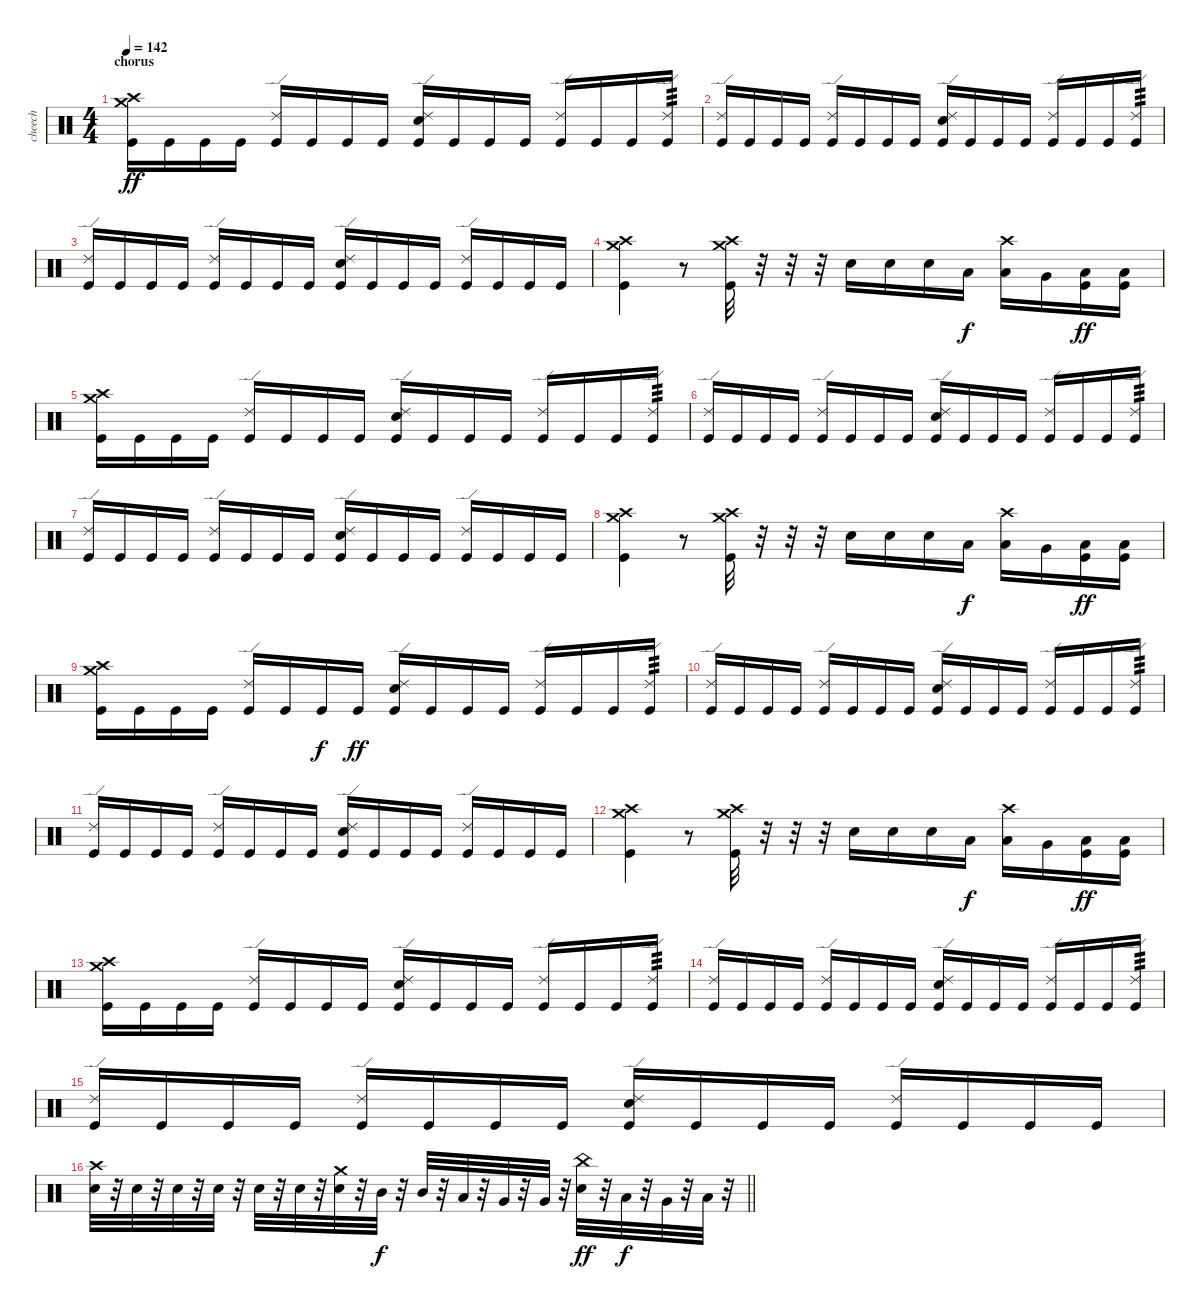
\track ("cheech" "cheech") {instrument percussion}
\staff {score}
\articulation defaults
\ts (4 4)
\section ("" "chorus")
\tempo 142
\clef neutral
\ks c
("Crash high (hit)" "Crash medium (hit)" "Kick (hit)").16{dy ff} "Kick (hit)".16 "Kick (hit)".16 "Kick (hit)".16 ("Ride (edge) 2" "Kick (hit)").16 "Kick (hit)".16 "Kick (hit)".16 "Kick (hit)".16 ("Ride (edge) 2" "Electric Snare (hit)" "Kick (hit)").16 "Kick (hit)".16 "Kick (hit)".16 "Kick (hit)".16 ("Ride (edge) 2" "Kick (hit)").16 "Kick (hit)".16 "Kick (hit)".16 ("Ride (edge) 2" "Kick (hit)").16{tp 3} |
("Ride (edge) 2" "Kick (hit)").16 "Kick (hit)".16 "Kick (hit)".16 "Kick (hit)".16 ("Ride (edge) 2" "Kick (hit)").16 "Kick (hit)".16 "Kick (hit)".16 "Kick (hit)".16 ("Ride (edge) 2" "Electric Snare (hit)" "Kick (hit)").16 "Kick (hit)".16 "Kick (hit)".16 "Kick (hit)".16 ("Ride (edge) 2" "Kick (hit)").16 "Kick (hit)".16 "Kick (hit)".16 ("Ride (edge) 2" "Kick (hit)").16{tp 3} |
("Ride (edge) 2" "Kick (hit)").16 "Kick (hit)".16 "Kick (hit)".16 "Kick (hit)".16 ("Ride (edge) 2" "Kick (hit)").16 "Kick (hit)".16 "Kick (hit)".16 "Kick (hit)".16 ("Ride (edge) 2" "Electric Snare (hit)" "Kick (hit)").16 "Kick (hit)".16 "Kick (hit)".16 "Kick (hit)".16 ("Ride (edge) 2" "Kick (hit)").16 "Kick (hit)".16 "Kick (hit)".16 "Kick (hit)".16 |
("Crash high (hit)" "Crash medium (hit)" "Kick (hit)").4 r.8 ("Crash medium (hit)" "Crash high (hit)" "Kick (hit)").32 r.32 r.32 r.32 "Electric Snare (hit)".16 "Electric Snare (hit)".16 "Electric Snare (hit)".16 "Low Tom (hit)".16{dy f} ("Crash high (hit)" "Low Tom (hit)").16 "Very Low Tom (hit)".16 ("Low Floor Tom (hit)" "Kick (hit)").16{dy ff} ("Low Floor Tom (hit)" "Kick (hit)").16 |
("Crash high (hit)" "Crash medium (hit)" "Kick (hit)").16 "Kick (hit)".16 "Kick (hit)".16 "Kick (hit)".16 ("Ride (edge) 2" "Kick (hit)").16 "Kick (hit)".16 "Kick (hit)".16 "Kick (hit)".16 ("Ride (edge) 2" "Electric Snare (hit)" "Kick (hit)").16 "Kick (hit)".16 "Kick (hit)".16 "Kick (hit)".16 ("Ride (edge) 2" "Kick (hit)").16 "Kick (hit)".16 "Kick (hit)".16 ("Ride (edge) 2" "Kick (hit)").16{tp 3} |
("Ride (edge) 2" "Kick (hit)").16 "Kick (hit)".16 "Kick (hit)".16 "Kick (hit)".16 ("Ride (edge) 2" "Kick (hit)").16 "Kick (hit)".16 "Kick (hit)".16 "Kick (hit)".16 ("Ride (edge) 2" "Electric Snare (hit)" "Kick (hit)").16 "Kick (hit)".16 "Kick (hit)".16 "Kick (hit)".16 ("Ride (edge) 2" "Kick (hit)").16 "Kick (hit)".16 "Kick (hit)".16 ("Ride (edge) 2" "Kick (hit)").16{tp 3} |
("Ride (edge) 2" "Kick (hit)").16 "Kick (hit)".16 "Kick (hit)".16 "Kick (hit)".16 ("Ride (edge) 2" "Kick (hit)").16 "Kick (hit)".16 "Kick (hit)".16 "Kick (hit)".16 ("Ride (edge) 2" "Electric Snare (hit)" "Kick (hit)").16 "Kick (hit)".16 "Kick (hit)".16 "Kick (hit)".16 ("Ride (edge) 2" "Kick (hit)").16 "Kick (hit)".16 "Kick (hit)".16 "Kick (hit)".16 |
("Crash high (hit)" "Crash medium (hit)" "Kick (hit)").4 r.8 ("Crash medium (hit)" "Crash high (hit)" "Kick (hit)").32 r.32 r.32 r.32 "Electric Snare (hit)".16 "Electric Snare (hit)".16 "Electric Snare (hit)".16 "Low Tom (hit)".16{dy f} ("Crash high (hit)" "Low Tom (hit)").16 "Very Low Tom (hit)".16 ("Low Floor Tom (hit)" "Kick (hit)").16{dy ff} ("Low Floor Tom (hit)" "Kick (hit)").16 |
("Crash high (hit)" "Crash medium (hit)" "Kick (hit)").16 "Kick (hit)".16 "Kick (hit)".16 "Kick (hit)".16 ("Ride (edge) 2" "Kick (hit)").16 "Kick (hit)".16 "Kick (hit)".16{dy f} "Kick (hit)".16{dy ff} ("Ride (edge) 2" "Electric Snare (hit)" "Kick (hit)").16 "Kick (hit)".16 "Kick (hit)".16 "Kick (hit)".16 ("Ride (edge) 2" "Kick (hit)").16 "Kick (hit)".16 "Kick (hit)".16 ("Ride (edge) 2" "Kick (hit)").16{tp 3} |
("Ride (edge) 2" "Kick (hit)").16 "Kick (hit)".16 "Kick (hit)".16 "Kick (hit)".16 ("Ride (edge) 2" "Kick (hit)").16 "Kick (hit)".16 "Kick (hit)".16 "Kick (hit)".16 ("Ride (edge) 2" "Electric Snare (hit)" "Kick (hit)").16 "Kick (hit)".16 "Kick (hit)".16 "Kick (hit)".16 ("Ride (edge) 2" "Kick (hit)").16 "Kick (hit)".16 "Kick (hit)".16 ("Ride (edge) 2" "Kick (hit)").16{tp 3} |
("Ride (edge) 2" "Kick (hit)").16 "Kick (hit)".16 "Kick (hit)".16 "Kick (hit)".16 ("Ride (edge) 2" "Kick (hit)").16 "Kick (hit)".16 "Kick (hit)".16 "Kick (hit)".16 ("Ride (edge) 2" "Electric Snare (hit)" "Kick (hit)").16 "Kick (hit)".16 "Kick (hit)".16 "Kick (hit)".16 ("Ride (edge) 2" "Kick (hit)").16 "Kick (hit)".16 "Kick (hit)".16 "Kick (hit)".16 |
("Crash high (hit)" "Crash medium (hit)" "Kick (hit)").4 r.8 ("Crash medium (hit)" "Crash high (hit)" "Kick (hit)").32 r.32 r.32 r.32 "Electric Snare (hit)".16 "Electric Snare (hit)".16 "Electric Snare (hit)".16 "Low Tom (hit)".16{dy f} ("Crash high (hit)" "Low Tom (hit)").16 "Very Low Tom (hit)".16 ("Low Floor Tom (hit)" "Kick (hit)").16{dy ff} ("Low Floor Tom (hit)" "Kick (hit)").16 |
("Crash high (hit)" "Crash medium (hit)" "Kick (hit)").16 "Kick (hit)".16 "Kick (hit)".16 "Kick (hit)".16 ("Ride (edge) 2" "Kick (hit)").16 "Kick (hit)".16 "Kick (hit)".16 "Kick (hit)".16 ("Ride (edge) 2" "Electric Snare (hit)" "Kick (hit)").16 "Kick (hit)".16 "Kick (hit)".16 "Kick (hit)".16 ("Ride (edge) 2" "Kick (hit)").16 "Kick (hit)".16 "Kick (hit)".16 ("Ride (edge) 2" "Kick (hit)").16{tp 3} |
("Ride (edge) 2" "Kick (hit)").16 "Kick (hit)".16 "Kick (hit)".16 "Kick (hit)".16 ("Ride (edge) 2" "Kick (hit)").16 "Kick (hit)".16 "Kick (hit)".16 "Kick (hit)".16 ("Ride (edge) 2" "Electric Snare (hit)" "Kick (hit)").16 "Kick (hit)".16 "Kick (hit)".16 "Kick (hit)".16 ("Ride (edge) 2" "Kick (hit)").16 "Kick (hit)".16 "Kick (hit)".16 ("Ride (edge) 2" "Kick (hit)").16{tp 3} |
("Ride (edge) 2" "Kick (hit)").16 "Kick (hit)".16 "Kick (hit)".16 "Kick (hit)".16 ("Ride (edge) 2" "Kick (hit)").16 "Kick (hit)".16 "Kick (hit)".16 "Kick (hit)".16 ("Ride (edge) 2" "Electric Snare (hit)" "Kick (hit)").16 "Kick (hit)".16 "Kick (hit)".16 "Kick (hit)".16 ("Ride (edge) 2" "Kick (hit)").16 "Kick (hit)".16 "Kick (hit)".16 "Kick (hit)".16 |
\barLineRight lightlight
("Crash high (hit)" "Electric Snare (hit)").32 r.32 "Electric Snare (hit)".32 r.32 "Electric Snare (hit)".32 r.32 "Electric Snare (hit)".32 r.32 "Electric Snare (hit)".32 r.32 "Electric Snare (hit)".32 r.32 ("Crash medium (hit)" "Electric Snare (hit)").32 r.32 "Mid Tom (hit)".32{dy f} r.32 "Mid Tom (hit)".32 r.32 "Low Tom (hit)".32 r.32 "Very Low Tom (hit)".32 r.32 "Very Low Tom (hit)".32 r.32 ("China (hit)" "Electric Snare (hit)").32{dy ff} r.32 "Low Tom (hit)".32{dy f} r.32 "Very Low Tom (hit)".32 r.32 "Low Floor Tom (hit)".32 r.32
